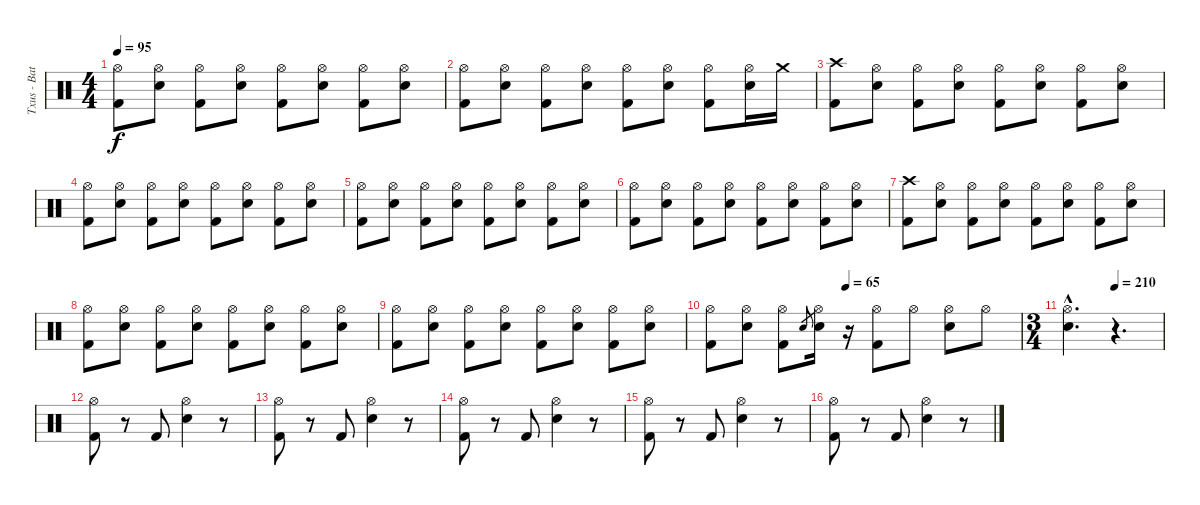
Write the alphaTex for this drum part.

\track ("Txus - Batería" "Txus - Bat") {instrument percussion}
\staff {score}
\articulation defaults
\ts (4 4)
\tempo 95
\clef neutral
\ks c
("Hi-Hat (open)" "Kick (hit) 2").8{dy f} ("Hi-Hat (open)" "Electric Snare (hit)").8 ("Hi-Hat (open)" "Kick (hit) 2").8 ("Hi-Hat (open)" "Electric Snare (hit)").8 ("Hi-Hat (open)" "Kick (hit) 2").8 ("Hi-Hat (open)" "Electric Snare (hit)").8 ("Hi-Hat (open)" "Kick (hit) 2").8 ("Hi-Hat (open)" "Electric Snare (hit)").8 |
("Hi-Hat (open)" "Kick (hit) 2").8 ("Hi-Hat (open)" "Electric Snare (hit)").8 ("Hi-Hat (open)" "Kick (hit) 2").8 ("Hi-Hat (open)" "Electric Snare (hit)").8 ("Hi-Hat (open)" "Kick (hit) 2").8 ("Hi-Hat (open)" "Electric Snare (hit)").8 ("Hi-Hat (open)" "Kick (hit) 2").8 ("Hi-Hat (open)" "Electric Snare (hit)").16 "Crash medium (hit)".16 |
("Crash high (hit)" "Kick (hit) 2").8 ("Hi-Hat (open)" "Electric Snare (hit)").8 ("Hi-Hat (open)" "Kick (hit) 2").8 ("Hi-Hat (open)" "Electric Snare (hit)").8 ("Hi-Hat (open)" "Kick (hit) 2").8 ("Hi-Hat (open)" "Electric Snare (hit)").8 ("Hi-Hat (open)" "Kick (hit) 2").8 ("Hi-Hat (open)" "Electric Snare (hit)").8 |
("Hi-Hat (open)" "Kick (hit) 2").8 ("Hi-Hat (open)" "Electric Snare (hit)").8 ("Hi-Hat (open)" "Kick (hit) 2").8 ("Hi-Hat (open)" "Electric Snare (hit)").8 ("Hi-Hat (open)" "Kick (hit) 2").8 ("Hi-Hat (open)" "Electric Snare (hit)").8 ("Hi-Hat (open)" "Kick (hit) 2").8 ("Hi-Hat (open)" "Electric Snare (hit)").8 |
("Hi-Hat (open)" "Kick (hit) 2").8 ("Hi-Hat (open)" "Electric Snare (hit)").8 ("Hi-Hat (open)" "Kick (hit) 2").8 ("Hi-Hat (open)" "Electric Snare (hit)").8 ("Hi-Hat (open)" "Kick (hit) 2").8 ("Hi-Hat (open)" "Electric Snare (hit)").8 ("Hi-Hat (open)" "Kick (hit) 2").8 ("Hi-Hat (open)" "Electric Snare (hit)").8 |
("Hi-Hat (open)" "Kick (hit) 2").8 ("Hi-Hat (open)" "Electric Snare (hit)").8 ("Hi-Hat (open)" "Kick (hit) 2").8 ("Hi-Hat (open)" "Electric Snare (hit)").8 ("Hi-Hat (open)" "Kick (hit) 2").8 ("Hi-Hat (open)" "Electric Snare (hit)").8 ("Hi-Hat (open)" "Kick (hit) 2").8 ("Hi-Hat (open)" "Electric Snare (hit)").8 |
("Crash high (hit)" "Kick (hit) 2").8 ("Hi-Hat (open)" "Electric Snare (hit)").8 ("Hi-Hat (open)" "Kick (hit) 2").8 ("Hi-Hat (open)" "Electric Snare (hit)").8 ("Hi-Hat (open)" "Kick (hit) 2").8 ("Hi-Hat (open)" "Electric Snare (hit)").8 ("Hi-Hat (open)" "Kick (hit) 2").8 ("Hi-Hat (open)" "Electric Snare (hit)").8 |
("Hi-Hat (open)" "Kick (hit) 2").8 ("Hi-Hat (open)" "Electric Snare (hit)").8 ("Hi-Hat (open)" "Kick (hit) 2").8 ("Hi-Hat (open)" "Electric Snare (hit)").8 ("Hi-Hat (open)" "Kick (hit) 2").8 ("Hi-Hat (open)" "Electric Snare (hit)").8 ("Hi-Hat (open)" "Kick (hit) 2").8 ("Hi-Hat (open)" "Electric Snare (hit)").8 |
("Hi-Hat (open)" "Kick (hit) 2").8 ("Hi-Hat (open)" "Electric Snare (hit)").8 ("Hi-Hat (open)" "Kick (hit) 2").8 ("Hi-Hat (open)" "Electric Snare (hit)").8 ("Hi-Hat (open)" "Kick (hit) 2").8 ("Hi-Hat (open)" "Electric Snare (hit)").8 ("Hi-Hat (open)" "Kick (hit) 2").8 ("Hi-Hat (open)" "Electric Snare (hit)").8 |
\tempo (65 0.4375)
("Hi-Hat (open)" "Kick (hit) 2").8 ("Hi-Hat (open)" "Electric Snare (hit)").8 ("Hi-Hat (open)" "Kick (hit) 2").8 "Electric Snare (hit)".8{gr} ("Hi-Hat (open)" "Electric Snare (hit)").16 r.16 ("Hi-Hat (open)" "Kick (hit) 2").8 "Hi-Hat (open)".8 ("Hi-Hat (open)" "Electric Snare (hit)").8 "Hi-Hat (open)".8 |
\ts (3 4)
\tempo (210 0.5)
("Hi-Hat (open)"{hac} "Electric Snare (hit)"{hac}).4{d} r.4{d} |
("Hi-Hat (open)" "Kick (hit) 2").8 r.8 "Kick (hit) 2".8 ("Hi-Hat (open)" "Electric Snare (hit)").4 r.8 |
("Hi-Hat (open)" "Kick (hit) 2").8 r.8 "Kick (hit) 2".8 ("Hi-Hat (open)" "Electric Snare (hit)").4 r.8 |
("Hi-Hat (open)" "Kick (hit) 2").8 r.8 "Kick (hit) 2".8 ("Hi-Hat (open)" "Electric Snare (hit)").4 r.8 |
("Hi-Hat (open)" "Kick (hit) 2").8 r.8 "Kick (hit) 2".8 ("Hi-Hat (open)" "Electric Snare (hit)").4 r.8 |
("Hi-Hat (open)" "Kick (hit) 2").8 r.8 "Kick (hit) 2".8 ("Hi-Hat (open)" "Electric Snare (hit)").4 r.8
